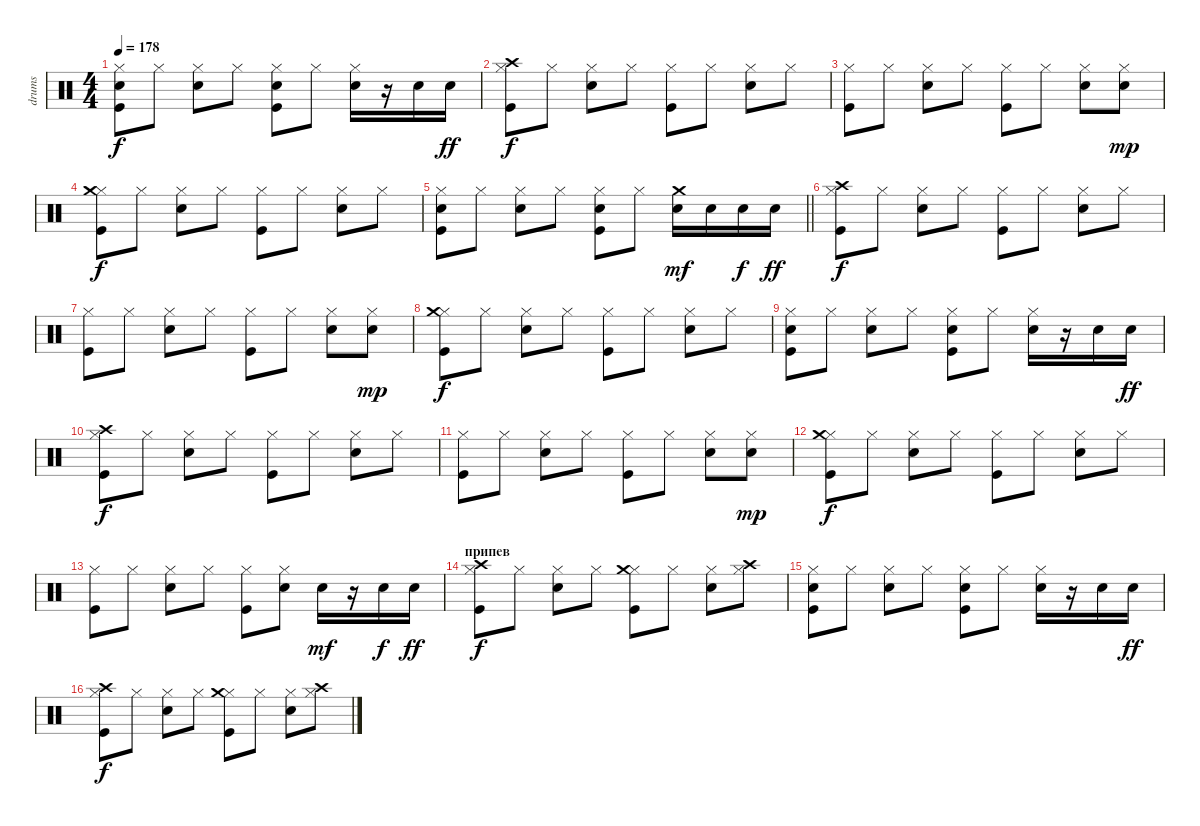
\track ("drums" "drums") {instrument percussion}
\staff {score}
\articulation defaults
\ts (4 4)
\tempo 178
\clef neutral
\ks c
("Hi-Hat (closed)" "Electric Snare (hit)" "Kick (hit)").8{dy f} "Hi-Hat (closed)".8 ("Hi-Hat (closed)" "Electric Snare (hit)").8 "Hi-Hat (closed)".8 ("Hi-Hat (closed)" "Electric Snare (hit)" "Kick (hit)").8 "Hi-Hat (closed)".8 ("Hi-Hat (closed)" "Electric Snare (hit)").16 r.16 "Electric Snare (hit)".16 "Electric Snare (hit)".16{dy ff} |
("Hi-Hat (closed)" "Crash high (hit)" "Kick (hit)").8{dy f} "Hi-Hat (closed)".8 ("Hi-Hat (closed)" "Electric Snare (hit)").8 "Hi-Hat (closed)".8 ("Hi-Hat (closed)" "Kick (hit)").8 "Hi-Hat (closed)".8 ("Hi-Hat (closed)" "Electric Snare (hit)").8 "Hi-Hat (closed)".8 |
("Hi-Hat (closed)" "Kick (hit)").8 "Hi-Hat (closed)".8 ("Hi-Hat (closed)" "Electric Snare (hit)").8 "Hi-Hat (closed)".8 ("Hi-Hat (closed)" "Kick (hit)").8 "Hi-Hat (closed)".8 ("Hi-Hat (closed)" "Electric Snare (hit)").8 ("Hi-Hat (closed)" "Electric Snare (hit)").8{dy mp} |
("Hi-Hat (closed)" "Crash medium (hit)" "Kick (hit)").8{dy f} "Hi-Hat (closed)".8 ("Hi-Hat (closed)" "Electric Snare (hit)").8 "Hi-Hat (closed)".8 ("Hi-Hat (closed)" "Kick (hit)").8 "Hi-Hat (closed)".8 ("Hi-Hat (closed)" "Electric Snare (hit)").8 "Hi-Hat (closed)".8 |
\barLineRight lightlight
("Hi-Hat (closed)" "Electric Snare (hit)" "Kick (hit)").8 "Hi-Hat (closed)".8 ("Hi-Hat (closed)" "Electric Snare (hit)").8 "Hi-Hat (closed)".8 ("Hi-Hat (closed)" "Electric Snare (hit)" "Kick (hit)").8 "Hi-Hat (closed)".8 ("Crash medium (hit)" "Electric Snare (hit)").16{dy mf} "Electric Snare (hit)".16 "Electric Snare (hit)".16{dy f} "Electric Snare (hit)".16{dy ff} |
("Hi-Hat (closed)" "Crash high (hit)" "Kick (hit)").8{dy f} "Hi-Hat (closed)".8 ("Hi-Hat (closed)" "Electric Snare (hit)").8 "Hi-Hat (closed)".8 ("Hi-Hat (closed)" "Kick (hit)").8 "Hi-Hat (closed)".8 ("Hi-Hat (closed)" "Electric Snare (hit)").8 "Hi-Hat (closed)".8 |
("Hi-Hat (closed)" "Kick (hit)").8 "Hi-Hat (closed)".8 ("Hi-Hat (closed)" "Electric Snare (hit)").8 "Hi-Hat (closed)".8 ("Hi-Hat (closed)" "Kick (hit)").8 "Hi-Hat (closed)".8 ("Hi-Hat (closed)" "Electric Snare (hit)").8 ("Hi-Hat (closed)" "Electric Snare (hit)").8{dy mp} |
("Hi-Hat (closed)" "Crash medium (hit)" "Kick (hit)").8{dy f} "Hi-Hat (closed)".8 ("Hi-Hat (closed)" "Electric Snare (hit)").8 "Hi-Hat (closed)".8 ("Hi-Hat (closed)" "Kick (hit)").8 "Hi-Hat (closed)".8 ("Hi-Hat (closed)" "Electric Snare (hit)").8 "Hi-Hat (closed)".8 |
("Hi-Hat (closed)" "Electric Snare (hit)" "Kick (hit)").8 "Hi-Hat (closed)".8 ("Hi-Hat (closed)" "Electric Snare (hit)").8 "Hi-Hat (closed)".8 ("Hi-Hat (closed)" "Electric Snare (hit)" "Kick (hit)").8 "Hi-Hat (closed)".8 ("Hi-Hat (closed)" "Electric Snare (hit)").16 r.16 "Electric Snare (hit)".16 "Electric Snare (hit)".16{dy ff} |
("Hi-Hat (closed)" "Crash high (hit)" "Kick (hit)").8{dy f} "Hi-Hat (closed)".8 ("Hi-Hat (closed)" "Electric Snare (hit)").8 "Hi-Hat (closed)".8 ("Hi-Hat (closed)" "Kick (hit)").8 "Hi-Hat (closed)".8 ("Hi-Hat (closed)" "Electric Snare (hit)").8 "Hi-Hat (closed)".8 |
("Hi-Hat (closed)" "Kick (hit)").8 "Hi-Hat (closed)".8 ("Hi-Hat (closed)" "Electric Snare (hit)").8 "Hi-Hat (closed)".8 ("Hi-Hat (closed)" "Kick (hit)").8 "Hi-Hat (closed)".8 ("Hi-Hat (closed)" "Electric Snare (hit)").8 ("Hi-Hat (closed)" "Electric Snare (hit)").8{dy mp} |
("Hi-Hat (closed)" "Crash medium (hit)" "Kick (hit)").8{dy f} "Hi-Hat (closed)".8 ("Hi-Hat (closed)" "Electric Snare (hit)").8 "Hi-Hat (closed)".8 ("Hi-Hat (closed)" "Kick (hit)").8 "Hi-Hat (closed)".8 ("Hi-Hat (closed)" "Electric Snare (hit)").8 "Hi-Hat (closed)".8 |
("Hi-Hat (closed)" "Kick (hit)").8 "Hi-Hat (closed)".8 ("Hi-Hat (closed)" "Electric Snare (hit)").8 "Hi-Hat (closed)".8 ("Hi-Hat (closed)" "Kick (hit)").8 ("Hi-Hat (closed)" "Electric Snare (hit)").8 "Electric Snare (hit)".16{dy mf} r.16 "Electric Snare (hit)".16{dy f} "Electric Snare (hit)".16{dy ff} |
\section ("" "припев")
("Hi-Hat (closed)" "Crash high (hit)" "Kick (hit)").8{dy f} "Hi-Hat (closed)".8 ("Hi-Hat (closed)" "Electric Snare (hit)").8 "Hi-Hat (closed)".8 ("Hi-Hat (closed)" "Crash medium (hit)" "Kick (hit)").8 "Hi-Hat (closed)".8 ("Hi-Hat (closed)" "Electric Snare (hit)").8 ("Hi-Hat (closed)" "Crash high (hit)").8 |
("Hi-Hat (closed)" "Electric Snare (hit)" "Kick (hit)").8 "Hi-Hat (closed)".8 ("Hi-Hat (closed)" "Electric Snare (hit)").8 "Hi-Hat (closed)".8 ("Hi-Hat (closed)" "Electric Snare (hit)" "Kick (hit)").8 "Hi-Hat (closed)".8 ("Hi-Hat (closed)" "Electric Snare (hit)").16 r.16 "Electric Snare (hit)".16 "Electric Snare (hit)".16{dy ff} |
("Hi-Hat (closed)" "Crash high (hit)" "Kick (hit)").8{dy f} "Hi-Hat (closed)".8 ("Hi-Hat (closed)" "Electric Snare (hit)").8 "Hi-Hat (closed)".8 ("Hi-Hat (closed)" "Crash medium (hit)" "Kick (hit)").8 "Hi-Hat (closed)".8 ("Hi-Hat (closed)" "Electric Snare (hit)").8 ("Hi-Hat (closed)" "Crash high (hit)").8
